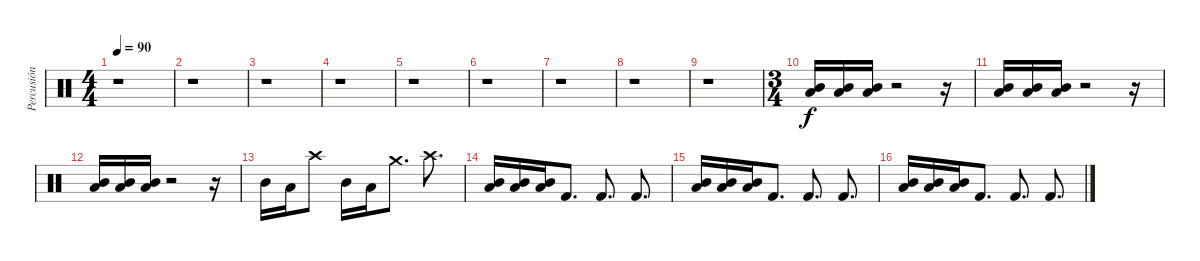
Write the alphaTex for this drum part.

\track ("Percusión" "Percusión") {instrument percussion}
\staff {score}
\articulation defaults
\ts (4 4)
\tempo 90
\clef neutral
\ks c
r.1{dy f} |
r.1 |
r.1 |
r.1 |
r.1 |
r.1 |
r.1 |
r.1 |
r.1 |
\ts (3 4)
("Low Tom (hit)" "Mid Tom (hit)").16 ("Low Tom (hit)" "Mid Tom (hit)").16 ("Low Tom (hit)" "Mid Tom (hit)").16 r.2 r.16 |
("Low Tom (hit)" "Mid Tom (hit)").16 ("Low Tom (hit)" "Mid Tom (hit)").16 ("Low Tom (hit)" "Mid Tom (hit)").16 r.2 r.16 |
("Low Tom (hit)" "Mid Tom (hit)").16 ("Low Tom (hit)" "Mid Tom (hit)").16 ("Low Tom (hit)" "Mid Tom (hit)").16 r.2 r.16 |
"Mid Tom (hit)".16 "Low Tom (hit)".16 "Crash high (hit)".8 "Mid Tom (hit)".16 "Low Tom (hit)".16 "Crash medium (hit)".8{d} "Crash high (hit)".8{d} |
("Low Tom (hit)" "Mid Tom (hit)").16 ("Low Tom (hit)" "Mid Tom (hit)").16 ("Low Tom (hit)" "Mid Tom (hit)").16 "Kick (hit) 2".8{d} "Kick (hit) 2".8{d} "Kick (hit) 2".8{d} |
("Low Tom (hit)" "Mid Tom (hit)").16 ("Low Tom (hit)" "Mid Tom (hit)").16 ("Low Tom (hit)" "Mid Tom (hit)").16 "Kick (hit) 2".8{d} "Kick (hit) 2".8{d} "Kick (hit) 2".8{d} |
("Low Tom (hit)" "Mid Tom (hit)").16 ("Low Tom (hit)" "Mid Tom (hit)").16 ("Low Tom (hit)" "Mid Tom (hit)").16 "Kick (hit) 2".8{d} "Kick (hit) 2".8{d} "Kick (hit) 2".8{d}
